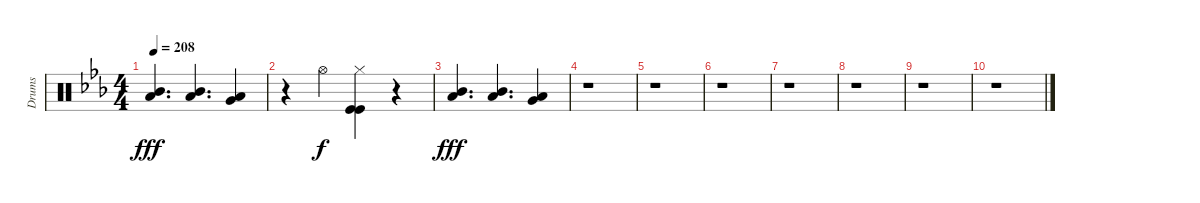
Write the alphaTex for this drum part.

\track ("Drums" "Drums") {instrument percussion}
\staff {score}
\articulation defaults
\ts (4 4)
\tempo 208
\clef neutral
\ks cminor
("Mid Tom (hit)" "Low Floor Tom (hit)").4{d dy fff} ("Mid Tom (hit)" "Low Floor Tom (hit)").4{d} ("Very Low Tom (hit)" "Low Floor Tom (hit)").4 |
r.4 "Hi-Hat (open)".4{dy f} ("Hi-Hat (closed)" "Kick (hit)" "Kick (hit)").4 r.4 |
("Mid Tom (hit)" "Low Floor Tom (hit)").4{d dy fff} ("Mid Tom (hit)" "Low Floor Tom (hit)").4{d} ("Very Low Tom (hit)" "Low Floor Tom (hit)").4 |
r.1 |
r.1 |
r.1 |
r.1 |
r.1 |
r.1 |
r.1
